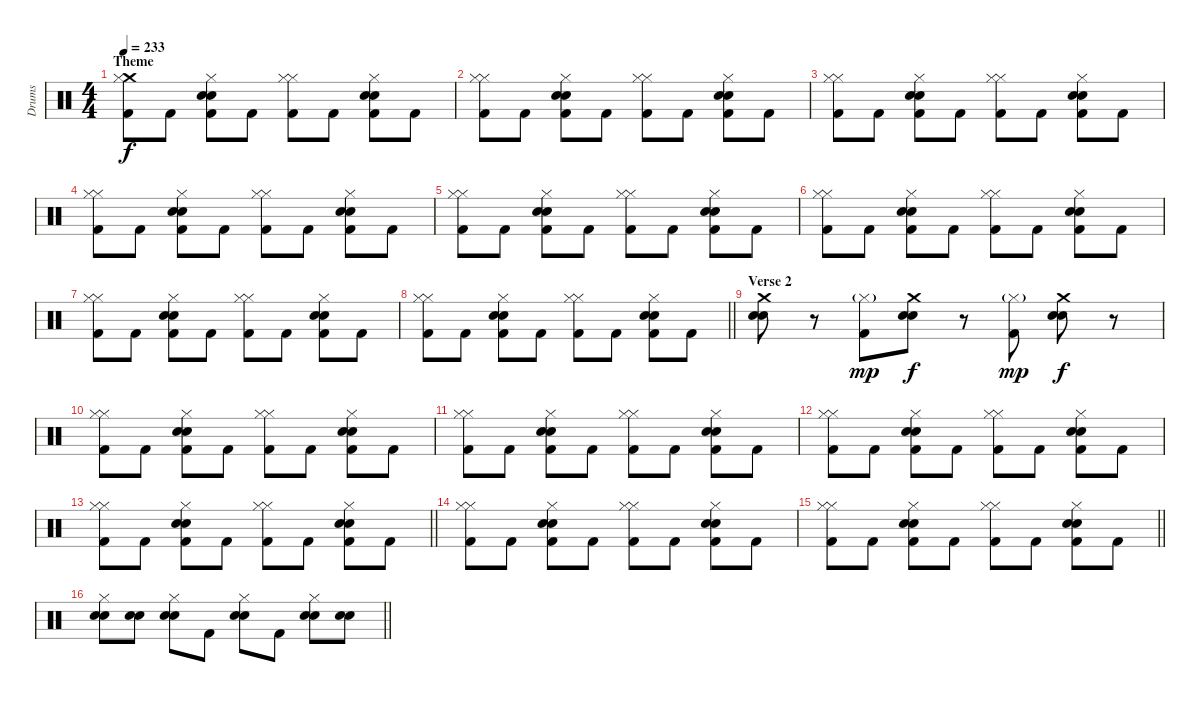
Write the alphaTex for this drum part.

\track ("Drums" "Drums") {instrument percussion}
\staff {score}
\articulation defaults
\ts (4 4)
\section ("" "Theme")
\tempo 233
\clef neutral
\ks c
("Crash medium (hit)" "Hi-Hat (closed)" "Kick (hit) 2").8{dy f} "Kick (hit) 2".8 ("Hi-Hat (closed)" "Snare (hit) 2" "Electric Snare (hit)" "Kick (hit) 2").8 "Kick (hit) 2".8 ("Hi-Hat (closed)" "Hi-Hat (closed)" "Kick (hit) 2").8 "Kick (hit) 2".8 ("Hi-Hat (closed)" "Snare (hit) 2" "Electric Snare (hit)" "Kick (hit) 2").8 "Kick (hit) 2".8 |
("Hi-Hat (closed)" "Hi-Hat (closed)" "Kick (hit) 2").8 "Kick (hit) 2".8 ("Hi-Hat (closed)" "Snare (hit) 2" "Electric Snare (hit)" "Kick (hit) 2").8 "Kick (hit) 2".8 ("Hi-Hat (closed)" "Hi-Hat (closed)" "Kick (hit) 2").8 "Kick (hit) 2".8 ("Hi-Hat (closed)" "Snare (hit) 2" "Electric Snare (hit)" "Kick (hit) 2").8 "Kick (hit) 2".8 |
("Hi-Hat (closed)" "Hi-Hat (closed)" "Kick (hit) 2").8 "Kick (hit) 2".8 ("Hi-Hat (closed)" "Snare (hit) 2" "Electric Snare (hit)" "Kick (hit) 2").8 "Kick (hit) 2".8 ("Hi-Hat (closed)" "Hi-Hat (closed)" "Kick (hit) 2").8 "Kick (hit) 2".8 ("Hi-Hat (closed)" "Snare (hit) 2" "Electric Snare (hit)" "Kick (hit) 2").8 "Kick (hit) 2".8 |
("Hi-Hat (closed)" "Hi-Hat (closed)" "Kick (hit) 2").8 "Kick (hit) 2".8 ("Hi-Hat (closed)" "Snare (hit) 2" "Electric Snare (hit)" "Kick (hit) 2").8 "Kick (hit) 2".8 ("Hi-Hat (closed)" "Hi-Hat (closed)" "Kick (hit) 2").8 "Kick (hit) 2".8 ("Hi-Hat (closed)" "Snare (hit) 2" "Electric Snare (hit)" "Kick (hit) 2").8 "Kick (hit) 2".8 |
("Hi-Hat (closed)" "Hi-Hat (closed)" "Kick (hit) 2").8 "Kick (hit) 2".8 ("Hi-Hat (closed)" "Snare (hit) 2" "Electric Snare (hit)" "Kick (hit) 2").8 "Kick (hit) 2".8 ("Hi-Hat (closed)" "Hi-Hat (closed)" "Kick (hit) 2").8 "Kick (hit) 2".8 ("Hi-Hat (closed)" "Snare (hit) 2" "Electric Snare (hit)" "Kick (hit) 2").8 "Kick (hit) 2".8 |
("Hi-Hat (closed)" "Hi-Hat (closed)" "Kick (hit) 2").8 "Kick (hit) 2".8 ("Hi-Hat (closed)" "Snare (hit) 2" "Electric Snare (hit)" "Kick (hit) 2").8 "Kick (hit) 2".8 ("Hi-Hat (closed)" "Hi-Hat (closed)" "Kick (hit) 2").8 "Kick (hit) 2".8 ("Hi-Hat (closed)" "Snare (hit) 2" "Electric Snare (hit)" "Kick (hit) 2").8 "Kick (hit) 2".8 |
("Hi-Hat (closed)" "Hi-Hat (closed)" "Kick (hit) 2").8 "Kick (hit) 2".8 ("Hi-Hat (closed)" "Snare (hit) 2" "Electric Snare (hit)" "Kick (hit) 2").8 "Kick (hit) 2".8 ("Hi-Hat (closed)" "Hi-Hat (closed)" "Kick (hit) 2").8 "Kick (hit) 2".8 ("Hi-Hat (closed)" "Snare (hit) 2" "Electric Snare (hit)" "Kick (hit) 2").8 "Kick (hit) 2".8 |
\barLineRight lightlight
("Hi-Hat (closed)" "Hi-Hat (closed)" "Kick (hit) 2").8 "Kick (hit) 2".8 ("Hi-Hat (closed)" "Snare (hit) 2" "Electric Snare (hit)" "Kick (hit) 2").8 "Kick (hit) 2".8 ("Hi-Hat (closed)" "Hi-Hat (closed)" "Kick (hit) 2").8 "Kick (hit) 2".8 ("Hi-Hat (closed)" "Snare (hit) 2" "Electric Snare (hit)" "Kick (hit) 2").8 "Kick (hit) 2".8 |
\section ("" "Verse 2")
("Crash medium (hit)" "Snare (hit) 2" "Electric Snare (hit)").8 r.8 ("Hi-Hat (closed)"{g} "Kick (hit) 2").8{dy mp} ("Crash medium (hit)" "Snare (hit) 2" "Electric Snare (hit)").8{dy f} r.8 ("Hi-Hat (closed)"{g} "Kick (hit) 2").8{dy mp} ("Crash medium (hit)" "Snare (hit) 2" "Electric Snare (hit)").8{dy f} r.8 |
("Hi-Hat (closed)" "Hi-Hat (closed)" "Kick (hit) 2").8 "Kick (hit) 2".8 ("Hi-Hat (closed)" "Snare (hit) 2" "Electric Snare (hit)" "Kick (hit) 2").8 "Kick (hit) 2".8 ("Hi-Hat (closed)" "Hi-Hat (closed)" "Kick (hit) 2").8 "Kick (hit) 2".8 ("Hi-Hat (closed)" "Snare (hit) 2" "Electric Snare (hit)" "Kick (hit) 2").8 "Kick (hit) 2".8 |
("Hi-Hat (closed)" "Hi-Hat (closed)" "Kick (hit) 2").8 "Kick (hit) 2".8 ("Hi-Hat (closed)" "Snare (hit) 2" "Electric Snare (hit)" "Kick (hit) 2").8 "Kick (hit) 2".8 ("Hi-Hat (closed)" "Hi-Hat (closed)" "Kick (hit) 2").8 "Kick (hit) 2".8 ("Hi-Hat (closed)" "Snare (hit) 2" "Electric Snare (hit)" "Kick (hit) 2").8 "Kick (hit) 2".8 |
("Hi-Hat (closed)" "Hi-Hat (closed)" "Kick (hit) 2").8 "Kick (hit) 2".8 ("Hi-Hat (closed)" "Snare (hit) 2" "Electric Snare (hit)" "Kick (hit) 2").8 "Kick (hit) 2".8 ("Hi-Hat (closed)" "Hi-Hat (closed)" "Kick (hit) 2").8 "Kick (hit) 2".8 ("Hi-Hat (closed)" "Snare (hit) 2" "Electric Snare (hit)" "Kick (hit) 2").8 "Kick (hit) 2".8 |
\barLineRight lightlight
("Hi-Hat (closed)" "Hi-Hat (closed)" "Kick (hit) 2").8 "Kick (hit) 2".8 ("Hi-Hat (closed)" "Snare (hit) 2" "Electric Snare (hit)" "Kick (hit) 2").8 "Kick (hit) 2".8 ("Hi-Hat (closed)" "Hi-Hat (closed)" "Kick (hit) 2").8 "Kick (hit) 2".8 ("Hi-Hat (closed)" "Snare (hit) 2" "Electric Snare (hit)" "Kick (hit) 2").8 "Kick (hit) 2".8 |
("Hi-Hat (closed)" "Hi-Hat (closed)" "Kick (hit) 2").8 "Kick (hit) 2".8 ("Hi-Hat (closed)" "Snare (hit) 2" "Electric Snare (hit)" "Kick (hit) 2").8 "Kick (hit) 2".8 ("Hi-Hat (closed)" "Hi-Hat (closed)" "Kick (hit) 2").8 "Kick (hit) 2".8 ("Hi-Hat (closed)" "Snare (hit) 2" "Electric Snare (hit)" "Kick (hit) 2").8 "Kick (hit) 2".8 |
\barLineRight lightlight
("Hi-Hat (closed)" "Hi-Hat (closed)" "Kick (hit) 2").8 "Kick (hit) 2".8 ("Hi-Hat (closed)" "Snare (hit) 2" "Electric Snare (hit)" "Kick (hit) 2").8 "Kick (hit) 2".8 ("Hi-Hat (closed)" "Hi-Hat (closed)" "Kick (hit) 2").8 "Kick (hit) 2".8 ("Hi-Hat (closed)" "Snare (hit) 2" "Electric Snare (hit)" "Kick (hit) 2").8 "Kick (hit) 2".8 |
\barLineRight lightlight
("Hi-Hat (closed)" "Snare (hit) 2" "Electric Snare (hit)").8 ("Snare (hit) 2" "Electric Snare (hit)").8 ("Hi-Hat (closed)" "Snare (hit) 2" "Electric Snare (hit)").8 "Kick (hit) 2".8 ("Hi-Hat (closed)" "Snare (hit) 2" "Electric Snare (hit)").8 "Kick (hit) 2".8 ("Hi-Hat (closed)" "Snare (hit) 2" "Electric Snare (hit)").8 ("Snare (hit) 2" "Electric Snare (hit)").8
